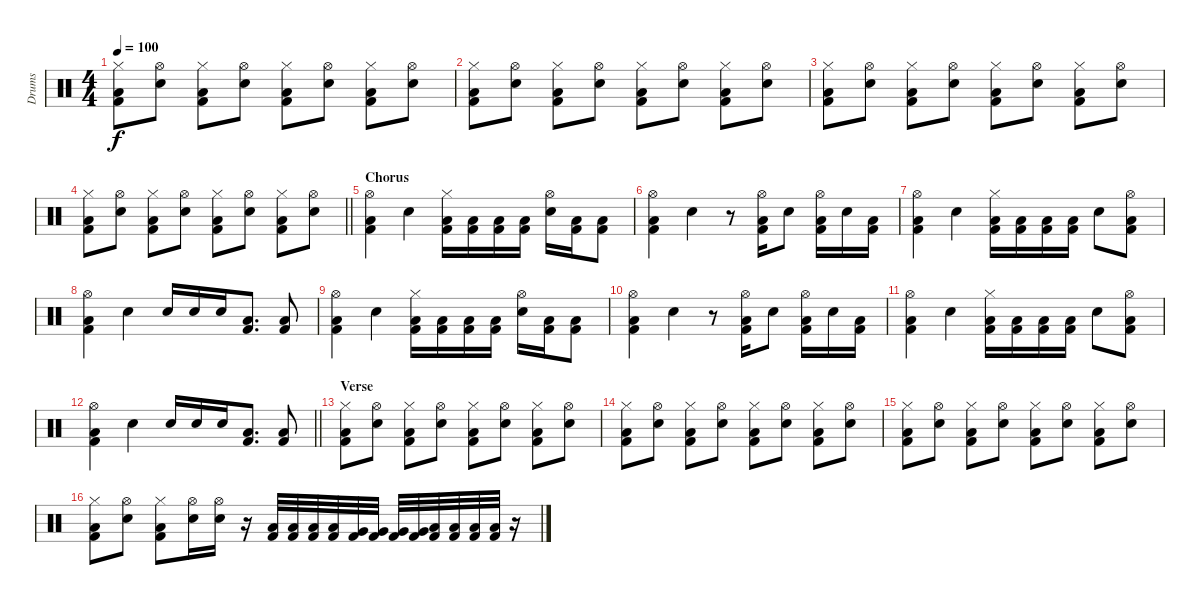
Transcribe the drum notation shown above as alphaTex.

\track ("Drums" "Drums") {instrument percussion}
\staff {score}
\articulation defaults
\ts (4 4)
\tempo 100
\clef neutral
\ks c
("Hi-Hat (closed)" "Low Floor Tom (hit)" "Kick (hit) 2").8{dy f} ("Hi-Hat (open)" "Snare (hit) 2").8 ("Hi-Hat (closed)" "Low Floor Tom (hit)" "Kick (hit) 2").8 ("Hi-Hat (open)" "Snare (hit) 2").8 ("Hi-Hat (closed)" "Low Floor Tom (hit)" "Kick (hit) 2").8 ("Hi-Hat (open)" "Snare (hit) 2").8 ("Hi-Hat (closed)" "Low Floor Tom (hit)" "Kick (hit) 2").8 ("Hi-Hat (open)" "Snare (hit) 2").8 |
("Hi-Hat (closed)" "Low Floor Tom (hit)" "Kick (hit) 2").8 ("Hi-Hat (open)" "Snare (hit) 2").8 ("Hi-Hat (closed)" "Low Floor Tom (hit)" "Kick (hit) 2").8 ("Hi-Hat (open)" "Snare (hit) 2").8 ("Hi-Hat (closed)" "Low Floor Tom (hit)" "Kick (hit) 2").8 ("Hi-Hat (open)" "Snare (hit) 2").8 ("Hi-Hat (closed)" "Low Floor Tom (hit)" "Kick (hit) 2").8 ("Hi-Hat (open)" "Snare (hit) 2").8 |
("Hi-Hat (closed)" "Low Floor Tom (hit)" "Kick (hit) 2").8 ("Hi-Hat (open)" "Snare (hit) 2").8 ("Hi-Hat (closed)" "Low Floor Tom (hit)" "Kick (hit) 2").8 ("Hi-Hat (open)" "Snare (hit) 2").8 ("Hi-Hat (closed)" "Low Floor Tom (hit)" "Kick (hit) 2").8 ("Hi-Hat (open)" "Snare (hit) 2").8 ("Hi-Hat (closed)" "Low Floor Tom (hit)" "Kick (hit) 2").8 ("Hi-Hat (open)" "Snare (hit) 2").8 |
\barLineRight lightlight
("Hi-Hat (closed)" "Low Floor Tom (hit)" "Kick (hit) 2").8 ("Hi-Hat (open)" "Snare (hit) 2").8 ("Hi-Hat (closed)" "Low Floor Tom (hit)" "Kick (hit) 2").8 ("Hi-Hat (open)" "Snare (hit) 2").8 ("Hi-Hat (closed)" "Low Floor Tom (hit)" "Kick (hit) 2").8 ("Hi-Hat (open)" "Snare (hit) 2").8 ("Hi-Hat (closed)" "Low Floor Tom (hit)" "Kick (hit) 2").8 ("Hi-Hat (open)" "Snare (hit) 2").8 |
\section ("" "Chorus")
("Hi-Hat (open)" "Low Floor Tom (hit)" "Kick (hit) 2").4 "Snare (hit) 2".4 ("Hi-Hat (closed)" "Low Floor Tom (hit)" "Kick (hit) 2").16 ("Low Floor Tom (hit)" "Kick (hit) 2").16 ("Low Floor Tom (hit)" "Kick (hit) 2").16 ("Low Floor Tom (hit)" "Kick (hit) 2").16 ("Hi-Hat (open)" "Snare (hit) 2").16 ("Low Floor Tom (hit)" "Kick (hit) 2").16 ("Low Floor Tom (hit)" "Kick (hit) 2").8 |
("Hi-Hat (open)" "Low Floor Tom (hit)" "Kick (hit) 2").4 "Snare (hit) 2".4 r.8 ("Hi-Hat (open)" "Low Floor Tom (hit)" "Kick (hit) 2").16 "Snare (hit) 2".8 ("Hi-Hat (open)" "Low Floor Tom (hit)" "Kick (hit) 2").16 "Snare (hit) 2".16 ("Low Floor Tom (hit)" "Kick (hit) 2").16 |
("Hi-Hat (open)" "Low Floor Tom (hit)" "Kick (hit) 2").4 "Snare (hit) 2".4 ("Hi-Hat (closed)" "Low Floor Tom (hit)" "Kick (hit) 2").16 ("Low Floor Tom (hit)" "Kick (hit) 2").16 ("Low Floor Tom (hit)" "Kick (hit) 2").16 ("Low Floor Tom (hit)" "Kick (hit) 2").16 "Snare (hit) 2".8 ("Hi-Hat (open)" "Low Floor Tom (hit)" "Kick (hit) 2").8 |
("Hi-Hat (open)" "Low Floor Tom (hit)" "Kick (hit) 2").4 "Snare (hit) 2".4 "Snare (hit) 2".16 "Snare (hit) 2".16 "Snare (hit) 2".16 ("Low Floor Tom (hit)" "Kick (hit) 2").8{d} ("Low Tom (hit)" "Kick (hit) 2").8 |
("Hi-Hat (open)" "Low Floor Tom (hit)" "Kick (hit) 2").4 "Snare (hit) 2".4 ("Hi-Hat (closed)" "Low Floor Tom (hit)" "Kick (hit) 2").16 ("Low Floor Tom (hit)" "Kick (hit) 2").16 ("Low Floor Tom (hit)" "Kick (hit) 2").16 ("Low Floor Tom (hit)" "Kick (hit) 2").16 ("Hi-Hat (open)" "Snare (hit) 2").16 ("Low Floor Tom (hit)" "Kick (hit) 2").16 ("Low Floor Tom (hit)" "Kick (hit) 2").8 |
("Hi-Hat (open)" "Low Floor Tom (hit)" "Kick (hit) 2").4 "Snare (hit) 2".4 r.8 ("Hi-Hat (open)" "Low Floor Tom (hit)" "Kick (hit) 2").16 "Snare (hit) 2".8 ("Hi-Hat (open)" "Low Floor Tom (hit)" "Kick (hit) 2").16 "Snare (hit) 2".16 ("Low Floor Tom (hit)" "Kick (hit) 2").16 |
("Hi-Hat (open)" "Low Floor Tom (hit)" "Kick (hit) 2").4 "Snare (hit) 2".4 ("Hi-Hat (closed)" "Low Floor Tom (hit)" "Kick (hit) 2").16 ("Low Floor Tom (hit)" "Kick (hit) 2").16 ("Low Floor Tom (hit)" "Kick (hit) 2").16 ("Low Floor Tom (hit)" "Kick (hit) 2").16 "Snare (hit) 2".8 ("Hi-Hat (open)" "Low Floor Tom (hit)" "Kick (hit) 2").8 |
\barLineRight lightlight
("Hi-Hat (open)" "Low Floor Tom (hit)" "Kick (hit) 2").4 "Snare (hit) 2".4 "Snare (hit) 2".16 "Snare (hit) 2".16 "Snare (hit) 2".16 ("Low Floor Tom (hit)" "Kick (hit) 2").8{d} ("Low Tom (hit)" "Kick (hit) 2").8 |
\section ("" "Verse ")
("Hi-Hat (closed)" "Low Floor Tom (hit)" "Kick (hit) 2").8 ("Hi-Hat (open)" "Snare (hit) 2").8 ("Hi-Hat (closed)" "Low Floor Tom (hit)" "Kick (hit) 2").8 ("Hi-Hat (open)" "Snare (hit) 2").8 ("Hi-Hat (closed)" "Low Floor Tom (hit)" "Kick (hit) 2").8 ("Hi-Hat (open)" "Snare (hit) 2").8 ("Hi-Hat (closed)" "Low Floor Tom (hit)" "Kick (hit) 2").8 ("Hi-Hat (open)" "Snare (hit) 2").8 |
("Hi-Hat (closed)" "Low Floor Tom (hit)" "Kick (hit) 2").8 ("Hi-Hat (open)" "Snare (hit) 2").8 ("Hi-Hat (closed)" "Low Floor Tom (hit)" "Kick (hit) 2").8 ("Hi-Hat (open)" "Snare (hit) 2").8 ("Hi-Hat (closed)" "Low Floor Tom (hit)" "Kick (hit) 2").8 ("Hi-Hat (open)" "Snare (hit) 2").8 ("Hi-Hat (closed)" "Low Floor Tom (hit)" "Kick (hit) 2").8 ("Hi-Hat (open)" "Snare (hit) 2").8 |
("Hi-Hat (closed)" "Low Floor Tom (hit)" "Kick (hit) 2").8 ("Hi-Hat (open)" "Snare (hit) 2").8 ("Hi-Hat (closed)" "Low Floor Tom (hit)" "Kick (hit) 2").8 ("Hi-Hat (open)" "Snare (hit) 2").8 ("Hi-Hat (closed)" "Low Floor Tom (hit)" "Kick (hit) 2").8 ("Hi-Hat (open)" "Snare (hit) 2").8 ("Hi-Hat (closed)" "Low Floor Tom (hit)" "Kick (hit) 2").8 ("Hi-Hat (open)" "Snare (hit) 2").8 |
("Hi-Hat (closed)" "Low Floor Tom (hit)" "Kick (hit) 2").8 ("Hi-Hat (open)" "Snare (hit) 2").8 ("Hi-Hat (closed)" "Low Floor Tom (hit)" "Kick (hit) 2").8 ("Hi-Hat (open)" "Snare (hit) 2").16 ("Hi-Hat (open)" "Snare (hit) 2").16 r.16 ("Low Tom (hit)" "Kick (hit) 2").32 ("Low Tom (hit)" "Kick (hit) 2").32 ("Low Tom (hit)" "Kick (hit) 2").32 ("Low Tom (hit)" "Kick (hit) 2").32 ("Very Low Tom (hit)" "Kick (hit) 2").32 ("Very Low Tom (hit)" "Kick (hit) 2").32 ("Very Low Tom (hit)" "Kick (hit) 2").32 ("Very Low Tom (hit)" "Kick (hit) 2").32 ("Low Floor Tom (hit)" "Kick (hit) 2").32 ("Low Floor Tom (hit)" "Kick (hit) 2").32 ("Low Floor Tom (hit)" "Kick (hit) 2").32 ("Low Floor Tom (hit)" "Kick (hit) 2").32 r.16
